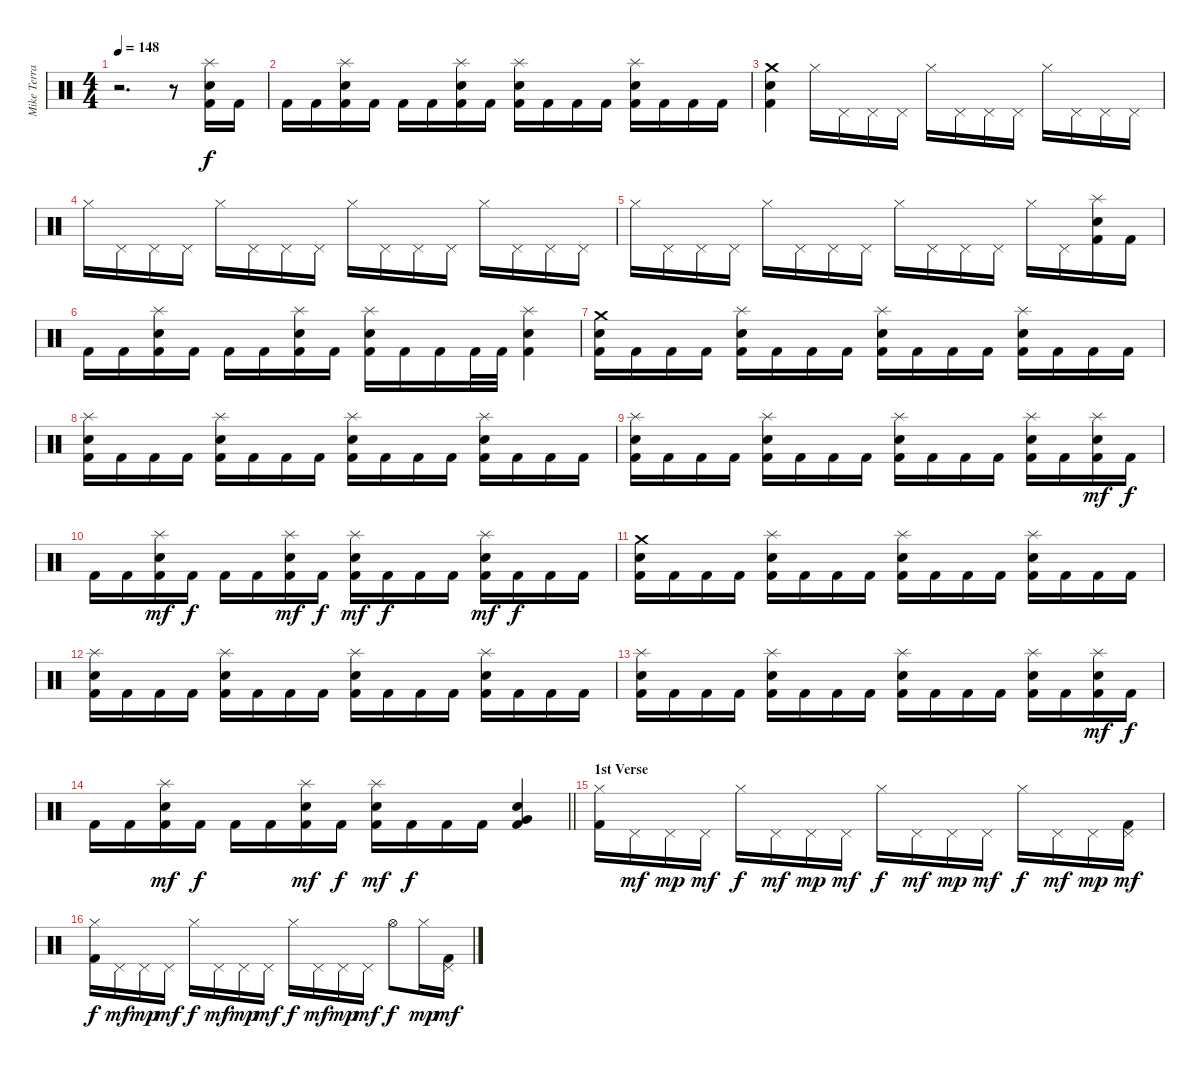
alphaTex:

\track ("Mike Terrana" "Mike Terra") {instrument percussion}
\staff {score}
\articulation defaults
\ts (4 4)
\tempo 148
\clef neutral
\ks c
r.2{d dy f} r.8 ("Splash (hit)" "Snare (hit) 2" "Kick (hit) 2").16 "Kick (hit) 2".16 |
"Kick (hit) 2".16 "Kick (hit) 2".16 ("Splash (hit)" "Snare (hit) 2" "Kick (hit) 2").16 "Kick (hit) 2".16 "Kick (hit) 2".16 "Kick (hit) 2".16 ("Splash (hit)" "Snare (hit) 2" "Kick (hit) 2").16 "Kick (hit) 2".16 ("Splash (hit)" "Snare (hit) 2" "Kick (hit) 2").16 "Kick (hit) 2".16 "Kick (hit) 2".16 "Kick (hit) 2".16 ("Splash (hit)" "Snare (hit) 2" "Kick (hit) 2").16 "Kick (hit) 2".16 "Kick (hit) 2".16 "Kick (hit) 2".16 |
("Crash medium (hit)" "Snare (hit) 2" "Kick (hit) 2").4 "Hi-Hat (closed)".16 "Pedal Hi-Hat (hit)".16 "Pedal Hi-Hat (hit)".16 "Pedal Hi-Hat (hit)".16 "Hi-Hat (closed)".16 "Pedal Hi-Hat (hit)".16 "Pedal Hi-Hat (hit)".16 "Pedal Hi-Hat (hit)".16 "Hi-Hat (closed)".16 "Pedal Hi-Hat (hit)".16 "Pedal Hi-Hat (hit)".16 "Pedal Hi-Hat (hit)".16 |
"Hi-Hat (closed)".16 "Pedal Hi-Hat (hit)".16 "Pedal Hi-Hat (hit)".16 "Pedal Hi-Hat (hit)".16 "Hi-Hat (closed)".16 "Pedal Hi-Hat (hit)".16 "Pedal Hi-Hat (hit)".16 "Pedal Hi-Hat (hit)".16 "Hi-Hat (closed)".16 "Pedal Hi-Hat (hit)".16 "Pedal Hi-Hat (hit)".16 "Pedal Hi-Hat (hit)".16 "Hi-Hat (closed)".16 "Pedal Hi-Hat (hit)".16 "Pedal Hi-Hat (hit)".16 "Pedal Hi-Hat (hit)".16 |
"Hi-Hat (closed)".16 "Pedal Hi-Hat (hit)".16 "Pedal Hi-Hat (hit)".16 "Pedal Hi-Hat (hit)".16 "Hi-Hat (closed)".16 "Pedal Hi-Hat (hit)".16 "Pedal Hi-Hat (hit)".16 "Pedal Hi-Hat (hit)".16 "Hi-Hat (closed)".16 "Pedal Hi-Hat (hit)".16 "Pedal Hi-Hat (hit)".16 "Pedal Hi-Hat (hit)".16 "Hi-Hat (closed)".16 "Pedal Hi-Hat (hit)".16 ("Splash (hit)" "Snare (hit) 2" "Kick (hit) 2").16 "Kick (hit) 2".16 |
"Kick (hit) 2".16 "Kick (hit) 2".16 ("Splash (hit)" "Snare (hit) 2" "Kick (hit) 2").16 "Kick (hit) 2".16 "Kick (hit) 2".16 "Kick (hit) 2".16 ("Splash (hit)" "Snare (hit) 2" "Kick (hit) 2").16 "Kick (hit) 2".16 ("Splash (hit)" "Snare (hit) 2" "Kick (hit) 2").16 "Kick (hit) 2".16 "Kick (hit) 2".16 "Kick (hit) 2".32 "Kick (hit) 2".32 ("Splash (hit)" "Snare (hit) 2" "Kick (hit) 2").4 |
("Crash medium (hit)" "Snare (hit) 2" "Kick (hit) 2").16 "Kick (hit) 2".16 "Kick (hit) 2".16 "Kick (hit) 2".16 ("Splash (hit)" "Snare (hit) 2" "Kick (hit) 2").16 "Kick (hit) 2".16 "Kick (hit) 2".16 "Kick (hit) 2".16 ("Splash (hit)" "Snare (hit) 2" "Kick (hit) 2").16 "Kick (hit) 2".16 "Kick (hit) 2".16 "Kick (hit) 2".16 ("Splash (hit)" "Snare (hit) 2" "Kick (hit) 2").16 "Kick (hit) 2".16 "Kick (hit) 2".16 "Kick (hit) 2".16 |
("Splash (hit)" "Snare (hit) 2" "Kick (hit) 2").16 "Kick (hit) 2".16 "Kick (hit) 2".16 "Kick (hit) 2".16 ("Splash (hit)" "Snare (hit) 2" "Kick (hit) 2").16 "Kick (hit) 2".16 "Kick (hit) 2".16 "Kick (hit) 2".16 ("Splash (hit)" "Snare (hit) 2" "Kick (hit) 2").16 "Kick (hit) 2".16 "Kick (hit) 2".16 "Kick (hit) 2".16 ("Splash (hit)" "Snare (hit) 2" "Kick (hit) 2").16 "Kick (hit) 2".16 "Kick (hit) 2".16 "Kick (hit) 2".16 |
("Splash (hit)" "Snare (hit) 2" "Kick (hit) 2").16 "Kick (hit) 2".16 "Kick (hit) 2".16 "Kick (hit) 2".16 ("Splash (hit)" "Snare (hit) 2" "Kick (hit) 2").16 "Kick (hit) 2".16 "Kick (hit) 2".16 "Kick (hit) 2".16 ("Splash (hit)" "Snare (hit) 2" "Kick (hit) 2").16 "Kick (hit) 2".16 "Kick (hit) 2".16 "Kick (hit) 2".16 ("Splash (hit)" "Snare (hit) 2" "Kick (hit) 2").16 "Kick (hit) 2".16 ("Splash (hit)" "Snare (hit) 2" "Kick (hit) 2").16{dy mf} "Kick (hit) 2".16{dy f} |
"Kick (hit) 2".16 "Kick (hit) 2".16 ("Splash (hit)" "Snare (hit) 2" "Kick (hit) 2").16{dy mf} "Kick (hit) 2".16{dy f} "Kick (hit) 2".16 "Kick (hit) 2".16 ("Splash (hit)" "Snare (hit) 2" "Kick (hit) 2").16{dy mf} "Kick (hit) 2".16{dy f} ("Splash (hit)" "Snare (hit) 2" "Kick (hit) 2").16{dy mf} "Kick (hit) 2".16{dy f} "Kick (hit) 2".16 "Kick (hit) 2".16 ("Splash (hit)" "Snare (hit) 2" "Kick (hit) 2").16{dy mf} "Kick (hit) 2".16{dy f} "Kick (hit) 2".16 "Kick (hit) 2".16 |
("Crash medium (hit)" "Snare (hit) 2" "Kick (hit) 2").16 "Kick (hit) 2".16 "Kick (hit) 2".16 "Kick (hit) 2".16 ("Splash (hit)" "Snare (hit) 2" "Kick (hit) 2").16 "Kick (hit) 2".16 "Kick (hit) 2".16 "Kick (hit) 2".16 ("Splash (hit)" "Snare (hit) 2" "Kick (hit) 2").16 "Kick (hit) 2".16 "Kick (hit) 2".16 "Kick (hit) 2".16 ("Splash (hit)" "Snare (hit) 2" "Kick (hit) 2").16 "Kick (hit) 2".16 "Kick (hit) 2".16 "Kick (hit) 2".16 |
("Splash (hit)" "Snare (hit) 2" "Kick (hit) 2").16 "Kick (hit) 2".16 "Kick (hit) 2".16 "Kick (hit) 2".16 ("Splash (hit)" "Snare (hit) 2" "Kick (hit) 2").16 "Kick (hit) 2".16 "Kick (hit) 2".16 "Kick (hit) 2".16 ("Splash (hit)" "Snare (hit) 2" "Kick (hit) 2").16 "Kick (hit) 2".16 "Kick (hit) 2".16 "Kick (hit) 2".16 ("Splash (hit)" "Snare (hit) 2" "Kick (hit) 2").16 "Kick (hit) 2".16 "Kick (hit) 2".16 "Kick (hit) 2".16 |
("Splash (hit)" "Snare (hit) 2" "Kick (hit) 2").16 "Kick (hit) 2".16 "Kick (hit) 2".16 "Kick (hit) 2".16 ("Splash (hit)" "Snare (hit) 2" "Kick (hit) 2").16 "Kick (hit) 2".16 "Kick (hit) 2".16 "Kick (hit) 2".16 ("Splash (hit)" "Snare (hit) 2" "Kick (hit) 2").16 "Kick (hit) 2".16 "Kick (hit) 2".16 "Kick (hit) 2".16 ("Splash (hit)" "Snare (hit) 2" "Kick (hit) 2").16 "Kick (hit) 2".16 ("Splash (hit)" "Snare (hit) 2" "Kick (hit) 2").16{dy mf} "Kick (hit) 2".16{dy f} |
\barLineRight lightlight "Kick (hit) 2".16 "Kick (hit) 2".16
("Splash (hit)" "Snare (hit) 2" "Kick (hit) 2").16{dy mf} "Kick (hit) 2".16{dy f} "Kick (hit) 2".16 "Kick (hit) 2".16 ("Splash (hit)" "Snare (hit) 2" "Kick (hit) 2").16{dy mf} "Kick (hit) 2".16{dy f} ("Splash (hit)" "Snare (hit) 2" "Kick (hit) 2").16{dy mf} "Kick (hit) 2".16{dy f} "Kick (hit) 2".16 "Kick (hit) 2".16 ("Snare (hit) 2" "Very Low Tom (hit)" "Kick (hit) 2").4 |
\section ("" "1st Verse")
("Hi-Hat (closed)" "Kick (hit) 2").16 "Pedal Hi-Hat (hit)".16{dy mf} "Pedal Hi-Hat (hit)".16{dy mp} "Pedal Hi-Hat (hit)".16{dy mf} "Hi-Hat (closed)".16{dy f} "Pedal Hi-Hat (hit)".16{dy mf} "Pedal Hi-Hat (hit)".16{dy mp} "Pedal Hi-Hat (hit)".16{dy mf} "Hi-Hat (closed)".16{dy f} "Pedal Hi-Hat (hit)".16{dy mf} "Pedal Hi-Hat (hit)".16{dy mp} "Pedal Hi-Hat (hit)".16{dy mf} "Hi-Hat (closed)".16{dy f} "Pedal Hi-Hat (hit)".16{dy mf} "Pedal Hi-Hat (hit)".16{dy mp} ("Pedal Hi-Hat (hit)" "Kick (hit) 2").16{dy mf} |
("Hi-Hat (closed)" "Kick (hit) 2").16{dy f} "Pedal Hi-Hat (hit)".16{dy mf} "Pedal Hi-Hat (hit)".16{dy mp} "Pedal Hi-Hat (hit)".16{dy mf} "Hi-Hat (closed)".16{dy f} "Pedal Hi-Hat (hit)".16{dy mf} "Pedal Hi-Hat (hit)".16{dy mp} "Pedal Hi-Hat (hit)".16{dy mf} "Hi-Hat (closed)".16{dy f} "Pedal Hi-Hat (hit)".16{dy mf} "Pedal Hi-Hat (hit)".16{dy mp} "Pedal Hi-Hat (hit)".16{dy mf} "Hi-Hat (open)".8{dy f} "Hi-Hat (closed)".16{dy mp} ("Pedal Hi-Hat (hit)" "Kick (hit) 2").16{dy mf}
